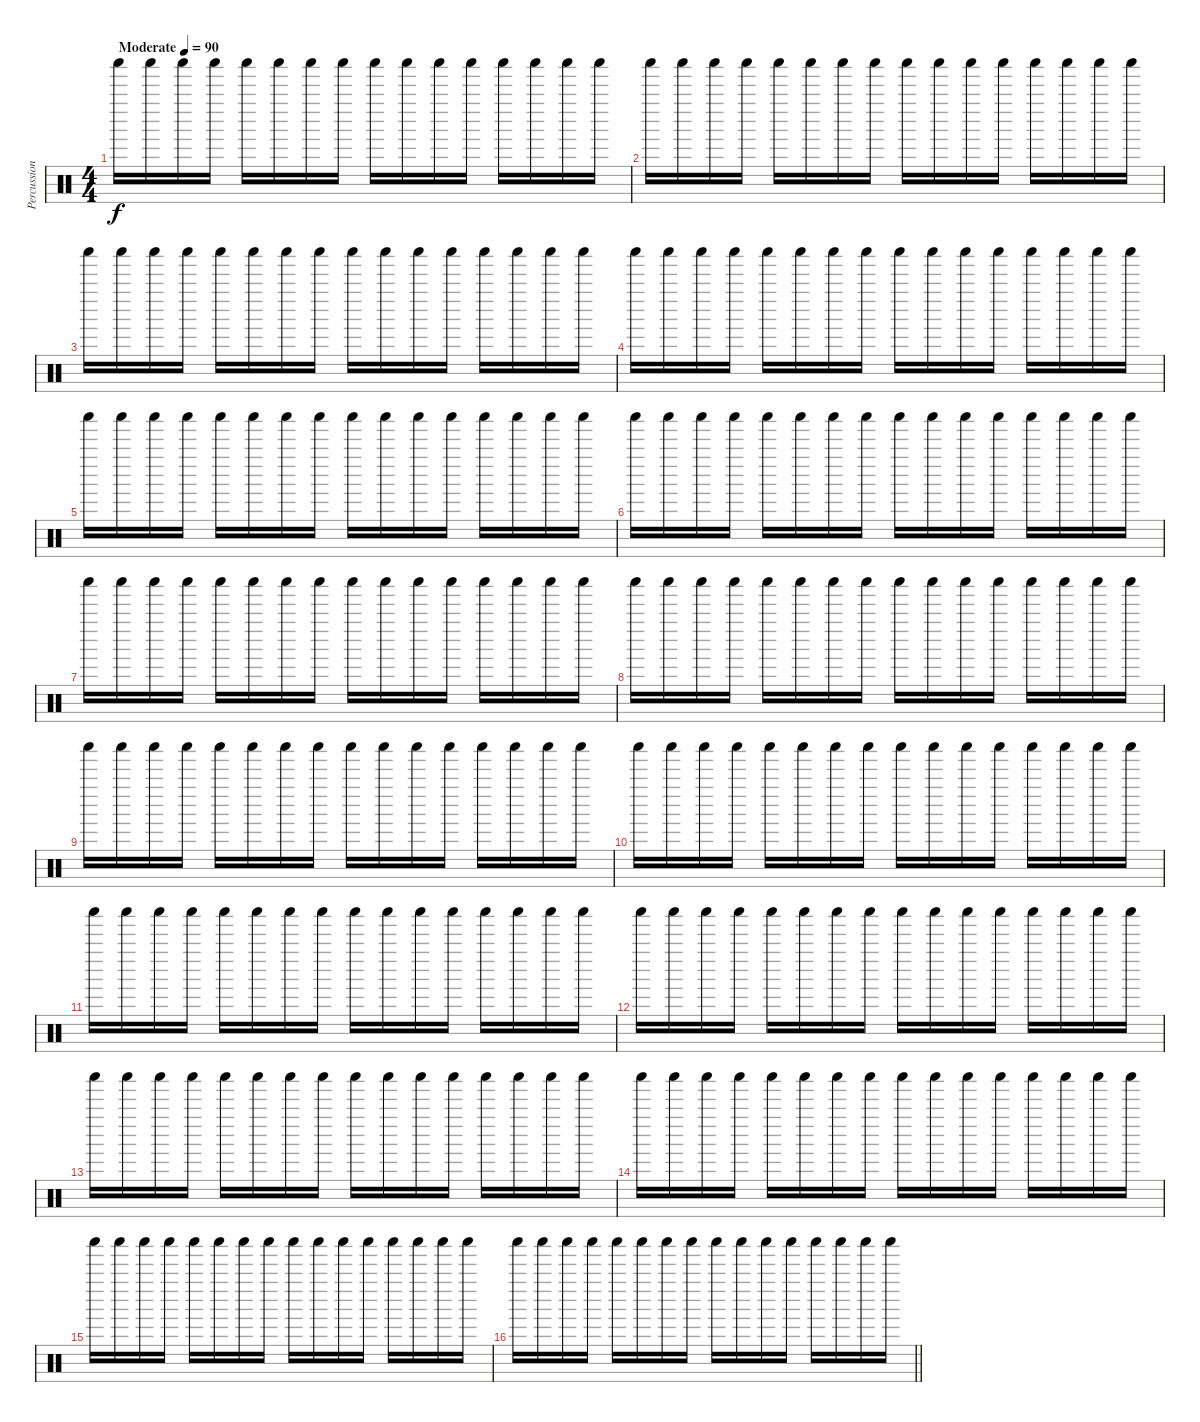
\track ("Percussion" "Percussion") {instrument percussion}
\staff {score}
\articulation defaults
\ts (4 4)
\tempo (90 "Moderate")
\clef neutral
\ks c "Shaker (hit)".16{dy f} "Shaker (hit)".16 "Shaker (hit)".16 "Shaker (hit)".16 "Shaker (hit)".16 "Shaker (hit)".16 "Shaker (hit)".16 "Shaker (hit)".16 "Shaker (hit)".16 "Shaker (hit)".16 "Shaker (hit)".16 "Shaker (hit)".16 "Shaker (hit)".16 "Shaker (hit)".16 "Shaker (hit)".16 "Shaker (hit)".16
|
"Shaker (hit)".16 "Shaker (hit)".16 "Shaker (hit)".16 "Shaker (hit)".16 "Shaker (hit)".16 "Shaker (hit)".16 "Shaker (hit)".16 "Shaker (hit)".16 "Shaker (hit)".16 "Shaker (hit)".16 "Shaker (hit)".16 "Shaker (hit)".16 "Shaker (hit)".16 "Shaker (hit)".16 "Shaker (hit)".16 "Shaker (hit)".16 |
"Shaker (hit)".16 "Shaker (hit)".16 "Shaker (hit)".16 "Shaker (hit)".16 "Shaker (hit)".16 "Shaker (hit)".16 "Shaker (hit)".16 "Shaker (hit)".16 "Shaker (hit)".16 "Shaker (hit)".16 "Shaker (hit)".16 "Shaker (hit)".16 "Shaker (hit)".16 "Shaker (hit)".16 "Shaker (hit)".16 "Shaker (hit)".16 |
"Shaker (hit)".16 "Shaker (hit)".16 "Shaker (hit)".16 "Shaker (hit)".16 "Shaker (hit)".16 "Shaker (hit)".16 "Shaker (hit)".16 "Shaker (hit)".16 "Shaker (hit)".16 "Shaker (hit)".16 "Shaker (hit)".16 "Shaker (hit)".16 "Shaker (hit)".16 "Shaker (hit)".16 "Shaker (hit)".16 "Shaker (hit)".16 |
"Shaker (hit)".16 "Shaker (hit)".16 "Shaker (hit)".16 "Shaker (hit)".16 "Shaker (hit)".16 "Shaker (hit)".16 "Shaker (hit)".16 "Shaker (hit)".16 "Shaker (hit)".16 "Shaker (hit)".16 "Shaker (hit)".16 "Shaker (hit)".16 "Shaker (hit)".16 "Shaker (hit)".16 "Shaker (hit)".16 "Shaker (hit)".16 |
"Shaker (hit)".16 "Shaker (hit)".16 "Shaker (hit)".16 "Shaker (hit)".16 "Shaker (hit)".16 "Shaker (hit)".16 "Shaker (hit)".16 "Shaker (hit)".16 "Shaker (hit)".16 "Shaker (hit)".16 "Shaker (hit)".16 "Shaker (hit)".16 "Shaker (hit)".16 "Shaker (hit)".16 "Shaker (hit)".16 "Shaker (hit)".16 |
"Shaker (hit)".16 "Shaker (hit)".16 "Shaker (hit)".16 "Shaker (hit)".16 "Shaker (hit)".16 "Shaker (hit)".16 "Shaker (hit)".16 "Shaker (hit)".16 "Shaker (hit)".16 "Shaker (hit)".16 "Shaker (hit)".16 "Shaker (hit)".16 "Shaker (hit)".16 "Shaker (hit)".16 "Shaker (hit)".16 "Shaker (hit)".16 |
"Shaker (hit)".16 "Shaker (hit)".16 "Shaker (hit)".16 "Shaker (hit)".16 "Shaker (hit)".16 "Shaker (hit)".16 "Shaker (hit)".16 "Shaker (hit)".16 "Shaker (hit)".16 "Shaker (hit)".16 "Shaker (hit)".16 "Shaker (hit)".16 "Shaker (hit)".16 "Shaker (hit)".16 "Shaker (hit)".16 "Shaker (hit)".16 |
"Shaker (hit)".16 "Shaker (hit)".16 "Shaker (hit)".16 "Shaker (hit)".16 "Shaker (hit)".16 "Shaker (hit)".16 "Shaker (hit)".16 "Shaker (hit)".16 "Shaker (hit)".16 "Shaker (hit)".16 "Shaker (hit)".16 "Shaker (hit)".16 "Shaker (hit)".16 "Shaker (hit)".16 "Shaker (hit)".16 "Shaker (hit)".16 |
"Shaker (hit)".16 "Shaker (hit)".16 "Shaker (hit)".16 "Shaker (hit)".16 "Shaker (hit)".16 "Shaker (hit)".16 "Shaker (hit)".16 "Shaker (hit)".16 "Shaker (hit)".16 "Shaker (hit)".16 "Shaker (hit)".16 "Shaker (hit)".16 "Shaker (hit)".16 "Shaker (hit)".16 "Shaker (hit)".16 "Shaker (hit)".16 |
"Shaker (hit)".16 "Shaker (hit)".16 "Shaker (hit)".16 "Shaker (hit)".16 "Shaker (hit)".16 "Shaker (hit)".16 "Shaker (hit)".16 "Shaker (hit)".16 "Shaker (hit)".16 "Shaker (hit)".16 "Shaker (hit)".16 "Shaker (hit)".16 "Shaker (hit)".16 "Shaker (hit)".16 "Shaker (hit)".16 "Shaker (hit)".16 |
"Shaker (hit)".16 "Shaker (hit)".16 "Shaker (hit)".16 "Shaker (hit)".16 "Shaker (hit)".16 "Shaker (hit)".16 "Shaker (hit)".16 "Shaker (hit)".16 "Shaker (hit)".16 "Shaker (hit)".16 "Shaker (hit)".16 "Shaker (hit)".16 "Shaker (hit)".16 "Shaker (hit)".16 "Shaker (hit)".16 "Shaker (hit)".16 |
"Shaker (hit)".16 "Shaker (hit)".16 "Shaker (hit)".16 "Shaker (hit)".16 "Shaker (hit)".16 "Shaker (hit)".16 "Shaker (hit)".16 "Shaker (hit)".16 "Shaker (hit)".16 "Shaker (hit)".16 "Shaker (hit)".16 "Shaker (hit)".16 "Shaker (hit)".16 "Shaker (hit)".16 "Shaker (hit)".16 "Shaker (hit)".16 |
"Shaker (hit)".16 "Shaker (hit)".16 "Shaker (hit)".16 "Shaker (hit)".16 "Shaker (hit)".16 "Shaker (hit)".16 "Shaker (hit)".16 "Shaker (hit)".16 "Shaker (hit)".16 "Shaker (hit)".16 "Shaker (hit)".16 "Shaker (hit)".16 "Shaker (hit)".16 "Shaker (hit)".16 "Shaker (hit)".16 "Shaker (hit)".16 |
"Shaker (hit)".16 "Shaker (hit)".16 "Shaker (hit)".16 "Shaker (hit)".16 "Shaker (hit)".16 "Shaker (hit)".16 "Shaker (hit)".16 "Shaker (hit)".16 "Shaker (hit)".16 "Shaker (hit)".16 "Shaker (hit)".16 "Shaker (hit)".16 "Shaker (hit)".16 "Shaker (hit)".16 "Shaker (hit)".16 "Shaker (hit)".16 |
\barLineRight lightlight "Shaker (hit)".16 "Shaker (hit)".16 "Shaker (hit)".16 "Shaker (hit)".16 "Shaker (hit)".16 "Shaker (hit)".16 "Shaker (hit)".16 "Shaker (hit)".16 "Shaker (hit)".16 "Shaker (hit)".16 "Shaker (hit)".16 "Shaker (hit)".16 "Shaker (hit)".16 "Shaker (hit)".16 "Shaker (hit)".16 "Shaker (hit)".16
